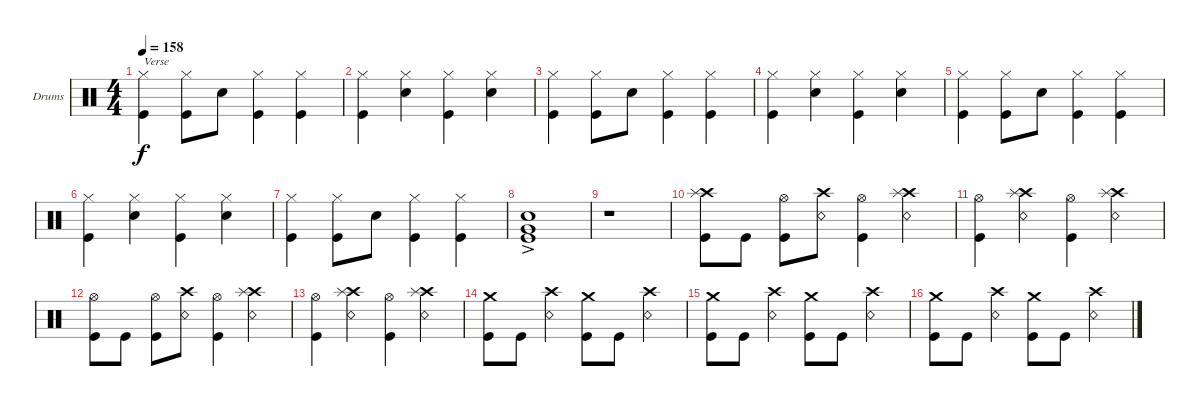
\bracketExtendMode groupsimilarinstruments
\firstSystemTrackNameOrientation horizontal
\otherSystemsTrackNameOrientation horizontal
\track ("Drumkit" "Drums") {instrument percussion}
\staff {score}
\articulation defaults
\ts (4 4)
\tempo 158
\clef neutral
\ks c
("Hi-Hat (closed)" "Kick (hit)").4{txt "Verse" dy f} ("Hi-Hat (closed)" "Kick (hit)").8 "Snare (hit) 2".8 ("Hi-Hat (closed)" "Kick (hit)").4 ("Hi-Hat (closed)" "Kick (hit)").4 |
("Hi-Hat (closed)" "Kick (hit)").4 ("Hi-Hat (closed)" "Snare (hit) 2").4 ("Hi-Hat (closed)" "Kick (hit)").4 ("Hi-Hat (closed)" "Snare (hit) 2").4 |
("Hi-Hat (closed)" "Kick (hit)").4 ("Hi-Hat (closed)" "Kick (hit)").8 "Snare (hit) 2".8 ("Hi-Hat (closed)" "Kick (hit)").4 ("Hi-Hat (closed)" "Kick (hit)").4 |
("Hi-Hat (closed)" "Kick (hit)").4 ("Hi-Hat (closed)" "Snare (hit) 2").4 ("Hi-Hat (closed)" "Kick (hit)").4 ("Hi-Hat (closed)" "Snare (hit) 2").4 |
("Hi-Hat (closed)" "Kick (hit)").4 ("Hi-Hat (closed)" "Kick (hit)").8 "Snare (hit) 2".8 ("Hi-Hat (closed)" "Kick (hit)").4 ("Hi-Hat (closed)" "Kick (hit)").4 |
("Hi-Hat (closed)" "Kick (hit)").4 ("Hi-Hat (closed)" "Snare (hit) 2").4 ("Hi-Hat (closed)" "Kick (hit)").4 ("Hi-Hat (closed)" "Snare (hit) 2").4 |
("Hi-Hat (closed)" "Kick (hit)").4 ("Hi-Hat (closed)" "Kick (hit)").8 "Snare (hit) 2".8 ("Hi-Hat (closed)" "Kick (hit)").4 ("Hi-Hat (closed)" "Kick (hit)").4 |
("Snare (hit) 2" "Very Low Tom (hit)"{ac} "Kick (hit)").1 |
r.1 |
("Kick (hit)" "Crash high (hit)" "Splash (hit)").8 "Kick (hit)".8 ("Hi-Hat (open)" "Kick (hit)").8 ("Snare (rim shot)" "Crash high (hit)").8 ("Hi-Hat (open)" "Kick (hit)").4 ("Snare (rim shot)" "Crash high (hit)" "Splash (hit)").4 |
("Hi-Hat (open)" "Kick (hit)").4 ("Snare (rim shot)" "Crash high (hit)" "Splash (hit)").4 ("Hi-Hat (open)" "Kick (hit)").4 ("Snare (rim shot)" "Crash high (hit)" "Splash (hit)").4 |
("Hi-Hat (open)" "Kick (hit)").8 "Kick (hit)".8 ("Hi-Hat (open)" "Kick (hit)").8 ("Snare (rim shot)" "Crash high (hit)").8 ("Hi-Hat (open)" "Kick (hit)").4 ("Snare (rim shot)" "Crash high (hit)" "Splash (hit)").4 |
("Hi-Hat (open)" "Kick (hit)").4 ("Snare (rim shot)" "Crash high (hit)" "Splash (hit)").4 ("Hi-Hat (open)" "Kick (hit)").4 ("Snare (rim shot)" "Crash high (hit)" "Splash (hit)").4 |
("Crash medium (hit)" "Kick (hit)").8 "Kick (hit)".8 ("Crash high (hit)" "Snare (rim shot)").4 ("Crash medium (hit)" "Kick (hit)").8 "Kick (hit)".8 ("Crash high (hit)" "Snare (rim shot)").4 |
("Crash medium (hit)" "Kick (hit)").8 "Kick (hit)".8 ("Crash high (hit)" "Snare (rim shot)").4 ("Crash medium (hit)" "Kick (hit)").8 "Kick (hit)".8 ("Crash high (hit)" "Snare (rim shot)").4 |
("Crash medium (hit)" "Kick (hit)").8 "Kick (hit)".8 ("Crash high (hit)" "Snare (rim shot)").4 ("Crash medium (hit)" "Kick (hit)").8 "Kick (hit)".8 ("Crash high (hit)" "Snare (rim shot)").4
